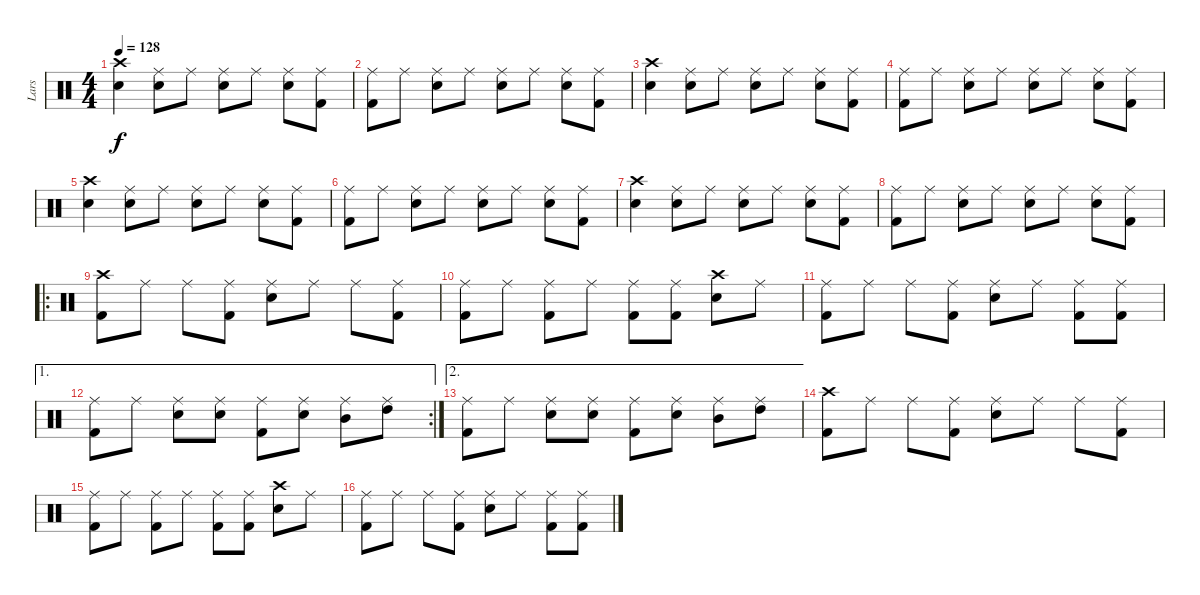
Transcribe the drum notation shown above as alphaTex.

\track ("Lars" "Lars") {instrument percussion}
\staff {score}
\articulation defaults
\ts (4 4)
\tempo 128
\clef neutral
\ks c
("Crash high (hit)" "Electric Snare (hit)").4{dy f} ("Ride (middle)" "Electric Snare (hit)").8 "Ride (middle)".8 ("Ride (middle)" "Electric Snare (hit)").8 "Ride (middle)".8 ("Ride (middle)" "Electric Snare (hit)").8 ("Ride (middle)" "Kick (hit) 2").8 |
("Ride (middle)" "Kick (hit) 2").8 "Ride (middle)".8 ("Ride (middle)" "Electric Snare (hit)").8 "Ride (middle)".8 ("Ride (middle)" "Electric Snare (hit)").8 "Ride (middle)".8 ("Ride (middle)" "Electric Snare (hit)").8 ("Ride (middle)" "Kick (hit) 2").8 |
("Crash high (hit)" "Electric Snare (hit)").4 ("Ride (middle)" "Electric Snare (hit)").8 "Ride (middle)".8 ("Ride (middle)" "Electric Snare (hit)").8 "Ride (middle)".8 ("Ride (middle)" "Electric Snare (hit)").8 ("Ride (middle)" "Kick (hit) 2").8 |
("Ride (middle)" "Kick (hit) 2").8 "Ride (middle)".8 ("Ride (middle)" "Electric Snare (hit)").8 "Ride (middle)".8 ("Ride (middle)" "Electric Snare (hit)").8 "Ride (middle)".8 ("Ride (middle)" "Electric Snare (hit)").8 ("Ride (middle)" "Kick (hit) 2").8 |
("Crash high (hit)" "Electric Snare (hit)").4 ("Ride (middle)" "Electric Snare (hit)").8 "Ride (middle)".8 ("Ride (middle)" "Electric Snare (hit)").8 "Ride (middle)".8 ("Ride (middle)" "Electric Snare (hit)").8 ("Ride (middle)" "Kick (hit) 2").8 |
("Ride (middle)" "Kick (hit) 2").8 "Ride (middle)".8 ("Ride (middle)" "Electric Snare (hit)").8 "Ride (middle)".8 ("Ride (middle)" "Electric Snare (hit)").8 "Ride (middle)".8 ("Ride (middle)" "Electric Snare (hit)").8 ("Ride (middle)" "Kick (hit) 2").8 |
("Crash high (hit)" "Electric Snare (hit)").4 ("Ride (middle)" "Electric Snare (hit)").8 "Ride (middle)".8 ("Ride (middle)" "Electric Snare (hit)").8 "Ride (middle)".8 ("Ride (middle)" "Electric Snare (hit)").8 ("Ride (middle)" "Kick (hit) 2").8 |
("Ride (middle)" "Kick (hit) 2").8 "Ride (middle)".8 ("Ride (middle)" "Electric Snare (hit)").8 "Ride (middle)".8 ("Ride (middle)" "Electric Snare (hit)").8 "Ride (middle)".8 ("Ride (middle)" "Electric Snare (hit)").8 ("Ride (middle)" "Kick (hit) 2").8 |
\ro
("Crash high (hit)" "Kick (hit) 2").8 "Ride (middle)".8 "Ride (middle)".8 ("Ride (middle)" "Kick (hit) 2").8 ("Ride (middle)" "Electric Snare (hit)").8 "Ride (middle)".8 "Ride (middle)".8 ("Ride (middle)" "Kick (hit) 2").8 |
("Ride (middle)" "Kick (hit) 2").8 "Ride (middle)".8 ("Ride (middle)" "Kick (hit) 2").8 "Ride (middle)".8 ("Ride (middle)" "Kick (hit) 2").8 ("Ride (middle)" "Kick (hit) 2").8 ("Crash high (hit)" "Electric Snare (hit)").8 "Ride (middle)".8 |
("Ride (middle)" "Kick (hit) 2").8 "Ride (middle)".8 "Ride (middle)".8 ("Ride (middle)" "Kick (hit) 2").8 ("Ride (middle)" "Electric Snare (hit)").8 "Ride (middle)".8 ("Ride (middle)" "Kick (hit) 2").8 ("Ride (middle)" "Kick (hit) 2").8 |
\ae 1
\rc 2
("Ride (middle)" "Kick (hit) 2").8 "Ride (middle)".8 ("Ride (middle)" "Electric Snare (hit)").8 ("Ride (middle)" "Electric Snare (hit)").8 ("Ride (middle)" "Kick (hit) 2").8 ("Ride (middle)" "Electric Snare (hit)").8 ("Ride (middle)" "Mid Tom (hit)").8 ("Ride (middle)" "High Tom (hit)").8 |
\ae 2
("Ride (middle)" "Kick (hit) 2").8 "Ride (middle)".8 ("Ride (middle)" "Electric Snare (hit)").8 ("Ride (middle)" "Electric Snare (hit)").8 ("Ride (middle)" "Kick (hit) 2").8 ("Ride (middle)" "Electric Snare (hit)").8 ("Ride (middle)" "Mid Tom (hit)").8 ("Ride (middle)" "High Tom (hit)").8 |
("Crash high (hit)" "Kick (hit) 2").8 "Ride (middle)".8 "Ride (middle)".8 ("Ride (middle)" "Kick (hit) 2").8 ("Ride (middle)" "Electric Snare (hit)").8 "Ride (middle)".8 "Ride (middle)".8 ("Ride (middle)" "Kick (hit) 2").8 |
("Ride (middle)" "Kick (hit) 2").8 "Ride (middle)".8 ("Ride (middle)" "Kick (hit) 2").8 "Ride (middle)".8 ("Ride (middle)" "Kick (hit) 2").8 ("Ride (middle)" "Kick (hit) 2").8 ("Crash high (hit)" "Electric Snare (hit)").8 "Ride (middle)".8 |
("Ride (middle)" "Kick (hit) 2").8 "Ride (middle)".8 "Ride (middle)".8 ("Ride (middle)" "Kick (hit) 2").8 ("Ride (middle)" "Electric Snare (hit)").8 "Ride (middle)".8 ("Ride (middle)" "Kick (hit) 2").8 ("Ride (middle)" "Kick (hit) 2").8
